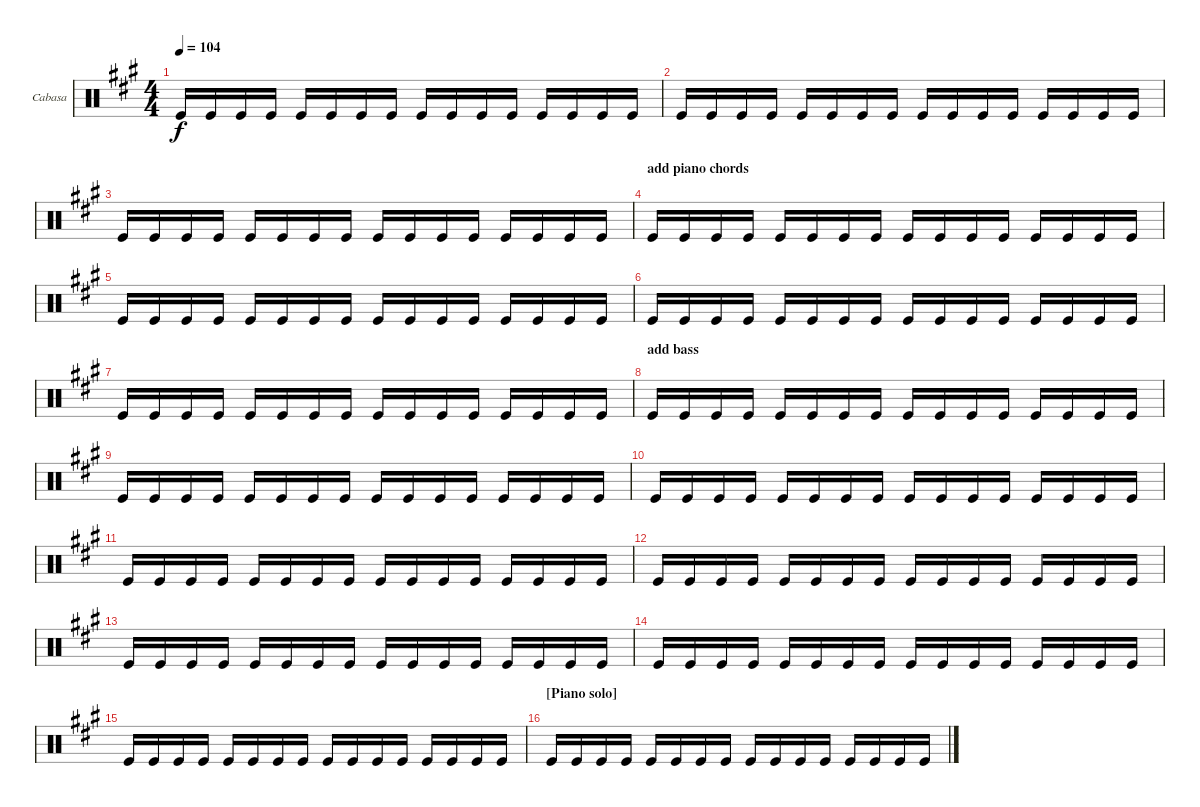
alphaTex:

\bracketExtendMode groupsimilarinstruments
\firstSystemTrackNameOrientation horizontal
\otherSystemsTrackNameOrientation horizontal
\track ("Cabasa" "Cabasa") {instrument percussion}
\staff {score}
\articulation defaults
\ts (4 4)
\tempo 104
\clef neutral
\ks a "Kick (hit)".16{dy f} "Kick (hit)".16 "Kick (hit)".16 "Kick (hit)".16 "Kick (hit)".16 "Kick (hit)".16 "Kick (hit)".16 "Kick (hit)".16 "Kick (hit)".16 "Kick (hit)".16 "Kick (hit)".16 "Kick (hit)".16 "Kick (hit)".16 "Kick (hit)".16 "Kick (hit)".16 "Kick (hit)".16
|
"Kick (hit)".16 "Kick (hit)".16 "Kick (hit)".16 "Kick (hit)".16 "Kick (hit)".16 "Kick (hit)".16 "Kick (hit)".16 "Kick (hit)".16 "Kick (hit)".16 "Kick (hit)".16 "Kick (hit)".16 "Kick (hit)".16 "Kick (hit)".16 "Kick (hit)".16 "Kick (hit)".16 "Kick (hit)".16 |
"Kick (hit)".16 "Kick (hit)".16 "Kick (hit)".16 "Kick (hit)".16 "Kick (hit)".16 "Kick (hit)".16 "Kick (hit)".16 "Kick (hit)".16 "Kick (hit)".16 "Kick (hit)".16 "Kick (hit)".16 "Kick (hit)".16 "Kick (hit)".16 "Kick (hit)".16 "Kick (hit)".16 "Kick (hit)".16 |
\section ("" "add piano chords")
"Kick (hit)".16 "Kick (hit)".16 "Kick (hit)".16 "Kick (hit)".16 "Kick (hit)".16 "Kick (hit)".16 "Kick (hit)".16 "Kick (hit)".16 "Kick (hit)".16 "Kick (hit)".16 "Kick (hit)".16 "Kick (hit)".16 "Kick (hit)".16 "Kick (hit)".16 "Kick (hit)".16 "Kick (hit)".16 |
"Kick (hit)".16 "Kick (hit)".16 "Kick (hit)".16 "Kick (hit)".16 "Kick (hit)".16 "Kick (hit)".16 "Kick (hit)".16 "Kick (hit)".16 "Kick (hit)".16 "Kick (hit)".16 "Kick (hit)".16 "Kick (hit)".16 "Kick (hit)".16 "Kick (hit)".16 "Kick (hit)".16 "Kick (hit)".16 |
"Kick (hit)".16 "Kick (hit)".16 "Kick (hit)".16 "Kick (hit)".16 "Kick (hit)".16 "Kick (hit)".16 "Kick (hit)".16 "Kick (hit)".16 "Kick (hit)".16 "Kick (hit)".16 "Kick (hit)".16 "Kick (hit)".16 "Kick (hit)".16 "Kick (hit)".16 "Kick (hit)".16 "Kick (hit)".16 |
"Kick (hit)".16 "Kick (hit)".16 "Kick (hit)".16 "Kick (hit)".16 "Kick (hit)".16 "Kick (hit)".16 "Kick (hit)".16 "Kick (hit)".16 "Kick (hit)".16 "Kick (hit)".16 "Kick (hit)".16 "Kick (hit)".16 "Kick (hit)".16 "Kick (hit)".16 "Kick (hit)".16 "Kick (hit)".16 |
\section ("" "add bass")
"Kick (hit)".16 "Kick (hit)".16 "Kick (hit)".16 "Kick (hit)".16 "Kick (hit)".16 "Kick (hit)".16 "Kick (hit)".16 "Kick (hit)".16 "Kick (hit)".16 "Kick (hit)".16 "Kick (hit)".16 "Kick (hit)".16 "Kick (hit)".16 "Kick (hit)".16 "Kick (hit)".16 "Kick (hit)".16 |
"Kick (hit)".16 "Kick (hit)".16 "Kick (hit)".16 "Kick (hit)".16 "Kick (hit)".16 "Kick (hit)".16 "Kick (hit)".16 "Kick (hit)".16 "Kick (hit)".16 "Kick (hit)".16 "Kick (hit)".16 "Kick (hit)".16 "Kick (hit)".16 "Kick (hit)".16 "Kick (hit)".16 "Kick (hit)".16 |
"Kick (hit)".16 "Kick (hit)".16 "Kick (hit)".16 "Kick (hit)".16 "Kick (hit)".16 "Kick (hit)".16 "Kick (hit)".16 "Kick (hit)".16 "Kick (hit)".16 "Kick (hit)".16 "Kick (hit)".16 "Kick (hit)".16 "Kick (hit)".16 "Kick (hit)".16 "Kick (hit)".16 "Kick (hit)".16 |
"Kick (hit)".16 "Kick (hit)".16 "Kick (hit)".16 "Kick (hit)".16 "Kick (hit)".16 "Kick (hit)".16 "Kick (hit)".16 "Kick (hit)".16 "Kick (hit)".16 "Kick (hit)".16 "Kick (hit)".16 "Kick (hit)".16 "Kick (hit)".16 "Kick (hit)".16 "Kick (hit)".16 "Kick (hit)".16 |
"Kick (hit)".16 "Kick (hit)".16 "Kick (hit)".16 "Kick (hit)".16 "Kick (hit)".16 "Kick (hit)".16 "Kick (hit)".16 "Kick (hit)".16 "Kick (hit)".16 "Kick (hit)".16 "Kick (hit)".16 "Kick (hit)".16 "Kick (hit)".16 "Kick (hit)".16 "Kick (hit)".16 "Kick (hit)".16 |
"Kick (hit)".16 "Kick (hit)".16 "Kick (hit)".16 "Kick (hit)".16 "Kick (hit)".16 "Kick (hit)".16 "Kick (hit)".16 "Kick (hit)".16 "Kick (hit)".16 "Kick (hit)".16 "Kick (hit)".16 "Kick (hit)".16 "Kick (hit)".16 "Kick (hit)".16 "Kick (hit)".16 "Kick (hit)".16 |
"Kick (hit)".16 "Kick (hit)".16 "Kick (hit)".16 "Kick (hit)".16 "Kick (hit)".16 "Kick (hit)".16 "Kick (hit)".16 "Kick (hit)".16 "Kick (hit)".16 "Kick (hit)".16 "Kick (hit)".16 "Kick (hit)".16 "Kick (hit)".16 "Kick (hit)".16 "Kick (hit)".16 "Kick (hit)".16 |
"Kick (hit)".16 "Kick (hit)".16 "Kick (hit)".16 "Kick (hit)".16 "Kick (hit)".16 "Kick (hit)".16 "Kick (hit)".16 "Kick (hit)".16 "Kick (hit)".16 "Kick (hit)".16 "Kick (hit)".16 "Kick (hit)".16 "Kick (hit)".16 "Kick (hit)".16 "Kick (hit)".16 "Kick (hit)".16 |
\section ("" "[Piano solo]")
"Kick (hit)".16 "Kick (hit)".16 "Kick (hit)".16 "Kick (hit)".16 "Kick (hit)".16 "Kick (hit)".16 "Kick (hit)".16 "Kick (hit)".16 "Kick (hit)".16 "Kick (hit)".16 "Kick (hit)".16 "Kick (hit)".16 "Kick (hit)".16 "Kick (hit)".16 "Kick (hit)".16 "Kick (hit)".16
